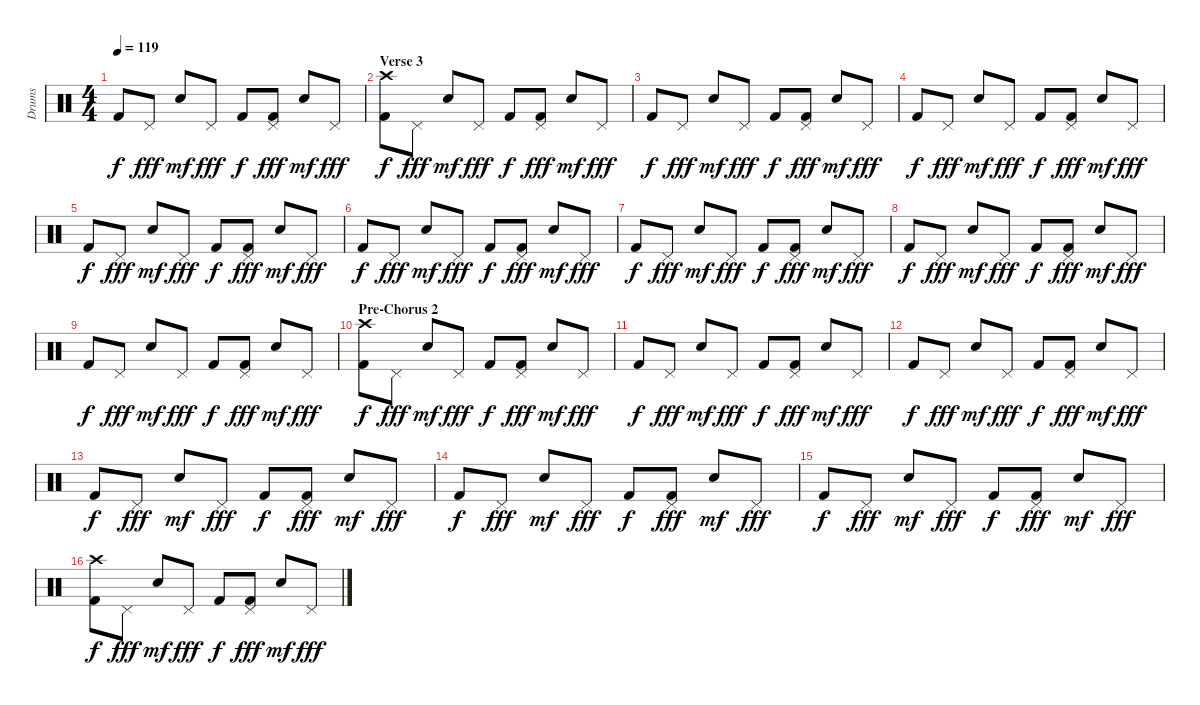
\track ("Drums" "Drums") {instrument percussion}
\staff {score}
\articulation defaults
\ts (4 4)
\tempo 119
\clef neutral
\ks c "Kick (hit) 2".8{dy f} "Pedal Hi-Hat (hit)".8{dy fff} "Electric Snare (hit)".8{dy mf} "Pedal Hi-Hat (hit)".8{dy fff} "Kick (hit) 2".8{dy f}
("Pedal Hi-Hat (hit)" "Kick (hit) 2").8{dy fff} "Electric Snare (hit)".8{dy mf} "Pedal Hi-Hat (hit)".8{dy fff} |
\section ("" "Verse 3")
("Crash high (hit)" "Kick (hit) 2").8{dy f} "Pedal Hi-Hat (hit)".8{dy fff} "Electric Snare (hit)".8{dy mf} "Pedal Hi-Hat (hit)".8{dy fff} "Kick (hit) 2".8{dy f} ("Pedal Hi-Hat (hit)" "Kick (hit) 2").8{dy fff} "Electric Snare (hit)".8{dy mf} "Pedal Hi-Hat (hit)".8{dy fff} |
"Kick (hit) 2".8{dy f} "Pedal Hi-Hat (hit)".8{dy fff} "Electric Snare (hit)".8{dy mf} "Pedal Hi-Hat (hit)".8{dy fff} "Kick (hit) 2".8{dy f} ("Pedal Hi-Hat (hit)" "Kick (hit) 2").8{dy fff} "Electric Snare (hit)".8{dy mf} "Pedal Hi-Hat (hit)".8{dy fff} |
"Kick (hit) 2".8{dy f} "Pedal Hi-Hat (hit)".8{dy fff} "Electric Snare (hit)".8{dy mf} "Pedal Hi-Hat (hit)".8{dy fff} "Kick (hit) 2".8{dy f} ("Pedal Hi-Hat (hit)" "Kick (hit) 2").8{dy fff} "Electric Snare (hit)".8{dy mf} "Pedal Hi-Hat (hit)".8{dy fff} |
"Kick (hit) 2".8{dy f} "Pedal Hi-Hat (hit)".8{dy fff} "Electric Snare (hit)".8{dy mf} "Pedal Hi-Hat (hit)".8{dy fff} "Kick (hit) 2".8{dy f} ("Pedal Hi-Hat (hit)" "Kick (hit) 2").8{dy fff} "Electric Snare (hit)".8{dy mf} "Pedal Hi-Hat (hit)".8{dy fff} |
"Kick (hit) 2".8{dy f} "Pedal Hi-Hat (hit)".8{dy fff} "Electric Snare (hit)".8{dy mf} "Pedal Hi-Hat (hit)".8{dy fff} "Kick (hit) 2".8{dy f} ("Pedal Hi-Hat (hit)" "Kick (hit) 2").8{dy fff} "Electric Snare (hit)".8{dy mf} "Pedal Hi-Hat (hit)".8{dy fff} |
"Kick (hit) 2".8{dy f} "Pedal Hi-Hat (hit)".8{dy fff} "Electric Snare (hit)".8{dy mf} "Pedal Hi-Hat (hit)".8{dy fff} "Kick (hit) 2".8{dy f} ("Pedal Hi-Hat (hit)" "Kick (hit) 2").8{dy fff} "Electric Snare (hit)".8{dy mf} "Pedal Hi-Hat (hit)".8{dy fff} |
"Kick (hit) 2".8{dy f} "Pedal Hi-Hat (hit)".8{dy fff} "Electric Snare (hit)".8{dy mf} "Pedal Hi-Hat (hit)".8{dy fff} "Kick (hit) 2".8{dy f} ("Pedal Hi-Hat (hit)" "Kick (hit) 2").8{dy fff} "Electric Snare (hit)".8{dy mf} "Pedal Hi-Hat (hit)".8{dy fff} |
"Kick (hit) 2".8{dy f} "Pedal Hi-Hat (hit)".8{dy fff} "Electric Snare (hit)".8{dy mf} "Pedal Hi-Hat (hit)".8{dy fff} "Kick (hit) 2".8{dy f} ("Pedal Hi-Hat (hit)" "Kick (hit) 2").8{dy fff} "Electric Snare (hit)".8{dy mf} "Pedal Hi-Hat (hit)".8{dy fff} |
\section ("" "Pre-Chorus 2")
("Crash high (hit)" "Kick (hit) 2").8{dy f} "Pedal Hi-Hat (hit)".8{dy fff} "Electric Snare (hit)".8{dy mf} "Pedal Hi-Hat (hit)".8{dy fff} "Kick (hit) 2".8{dy f} ("Pedal Hi-Hat (hit)" "Kick (hit) 2").8{dy fff} "Electric Snare (hit)".8{dy mf} "Pedal Hi-Hat (hit)".8{dy fff} |
"Kick (hit) 2".8{dy f} "Pedal Hi-Hat (hit)".8{dy fff} "Electric Snare (hit)".8{dy mf} "Pedal Hi-Hat (hit)".8{dy fff} "Kick (hit) 2".8{dy f} ("Pedal Hi-Hat (hit)" "Kick (hit) 2").8{dy fff} "Electric Snare (hit)".8{dy mf} "Pedal Hi-Hat (hit)".8{dy fff} |
"Kick (hit) 2".8{dy f} "Pedal Hi-Hat (hit)".8{dy fff} "Electric Snare (hit)".8{dy mf} "Pedal Hi-Hat (hit)".8{dy fff} "Kick (hit) 2".8{dy f} ("Pedal Hi-Hat (hit)" "Kick (hit) 2").8{dy fff} "Electric Snare (hit)".8{dy mf} "Pedal Hi-Hat (hit)".8{dy fff} |
"Kick (hit) 2".8{dy f} "Pedal Hi-Hat (hit)".8{dy fff} "Electric Snare (hit)".8{dy mf} "Pedal Hi-Hat (hit)".8{dy fff} "Kick (hit) 2".8{dy f} ("Pedal Hi-Hat (hit)" "Kick (hit) 2").8{dy fff} "Electric Snare (hit)".8{dy mf} "Pedal Hi-Hat (hit)".8{dy fff} |
"Kick (hit) 2".8{dy f} "Pedal Hi-Hat (hit)".8{dy fff} "Electric Snare (hit)".8{dy mf} "Pedal Hi-Hat (hit)".8{dy fff} "Kick (hit) 2".8{dy f} ("Pedal Hi-Hat (hit)" "Kick (hit) 2").8{dy fff} "Electric Snare (hit)".8{dy mf} "Pedal Hi-Hat (hit)".8{dy fff} |
"Kick (hit) 2".8{dy f} "Pedal Hi-Hat (hit)".8{dy fff} "Electric Snare (hit)".8{dy mf} "Pedal Hi-Hat (hit)".8{dy fff} "Kick (hit) 2".8{dy f} ("Pedal Hi-Hat (hit)" "Kick (hit) 2").8{dy fff} "Electric Snare (hit)".8{dy mf} "Pedal Hi-Hat (hit)".8{dy fff} |
("Crash high (hit)" "Kick (hit) 2").8{dy f} "Pedal Hi-Hat (hit)".8{dy fff} "Electric Snare (hit)".8{dy mf} "Pedal Hi-Hat (hit)".8{dy fff} "Kick (hit) 2".8{dy f} ("Pedal Hi-Hat (hit)" "Kick (hit) 2").8{dy fff} "Electric Snare (hit)".8{dy mf} "Pedal Hi-Hat (hit)".8{dy fff}
